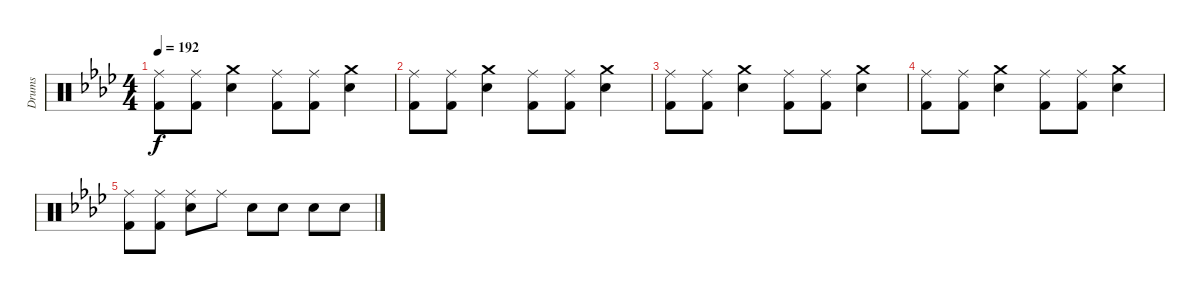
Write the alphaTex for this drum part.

\track ("Drums" "Drums") {instrument percussion}
\staff {score}
\articulation defaults
\ts (4 4)
\tempo 192
\clef neutral
\ks ab
("Ride (middle)" "Kick (hit) 2").8{dy f} ("Ride (middle)" "Kick (hit) 2").8 ("Crash medium (hit)" "Electric Snare (hit)").4 ("Ride (middle)" "Kick (hit) 2").8 ("Ride (middle)" "Kick (hit) 2").8 ("Crash medium (hit)" "Electric Snare (hit)").4 |
("Ride (middle)" "Kick (hit) 2").8 ("Ride (middle)" "Kick (hit) 2").8 ("Crash medium (hit)" "Electric Snare (hit)").4 ("Ride (middle)" "Kick (hit) 2").8 ("Ride (middle)" "Kick (hit) 2").8 ("Crash medium (hit)" "Electric Snare (hit)").4 |
("Ride (middle)" "Kick (hit) 2").8 ("Ride (middle)" "Kick (hit) 2").8 ("Crash medium (hit)" "Electric Snare (hit)").4 ("Ride (middle)" "Kick (hit) 2").8 ("Ride (middle)" "Kick (hit) 2").8 ("Crash medium (hit)" "Electric Snare (hit)").4 |
("Ride (middle)" "Kick (hit) 2").8 ("Ride (middle)" "Kick (hit) 2").8 ("Crash medium (hit)" "Electric Snare (hit)").4 ("Ride (middle)" "Kick (hit) 2").8 ("Ride (middle)" "Kick (hit) 2").8 ("Crash medium (hit)" "Electric Snare (hit)").4 |
("Ride (middle)" "Kick (hit) 2").8 ("Ride (middle)" "Kick (hit) 2").8 ("Ride (middle)" "Electric Snare (hit)").8 "Ride (middle)".8 "Electric Snare (hit)".8 "Electric Snare (hit)".8 "Electric Snare (hit)".8 "Electric Snare (hit)".8
